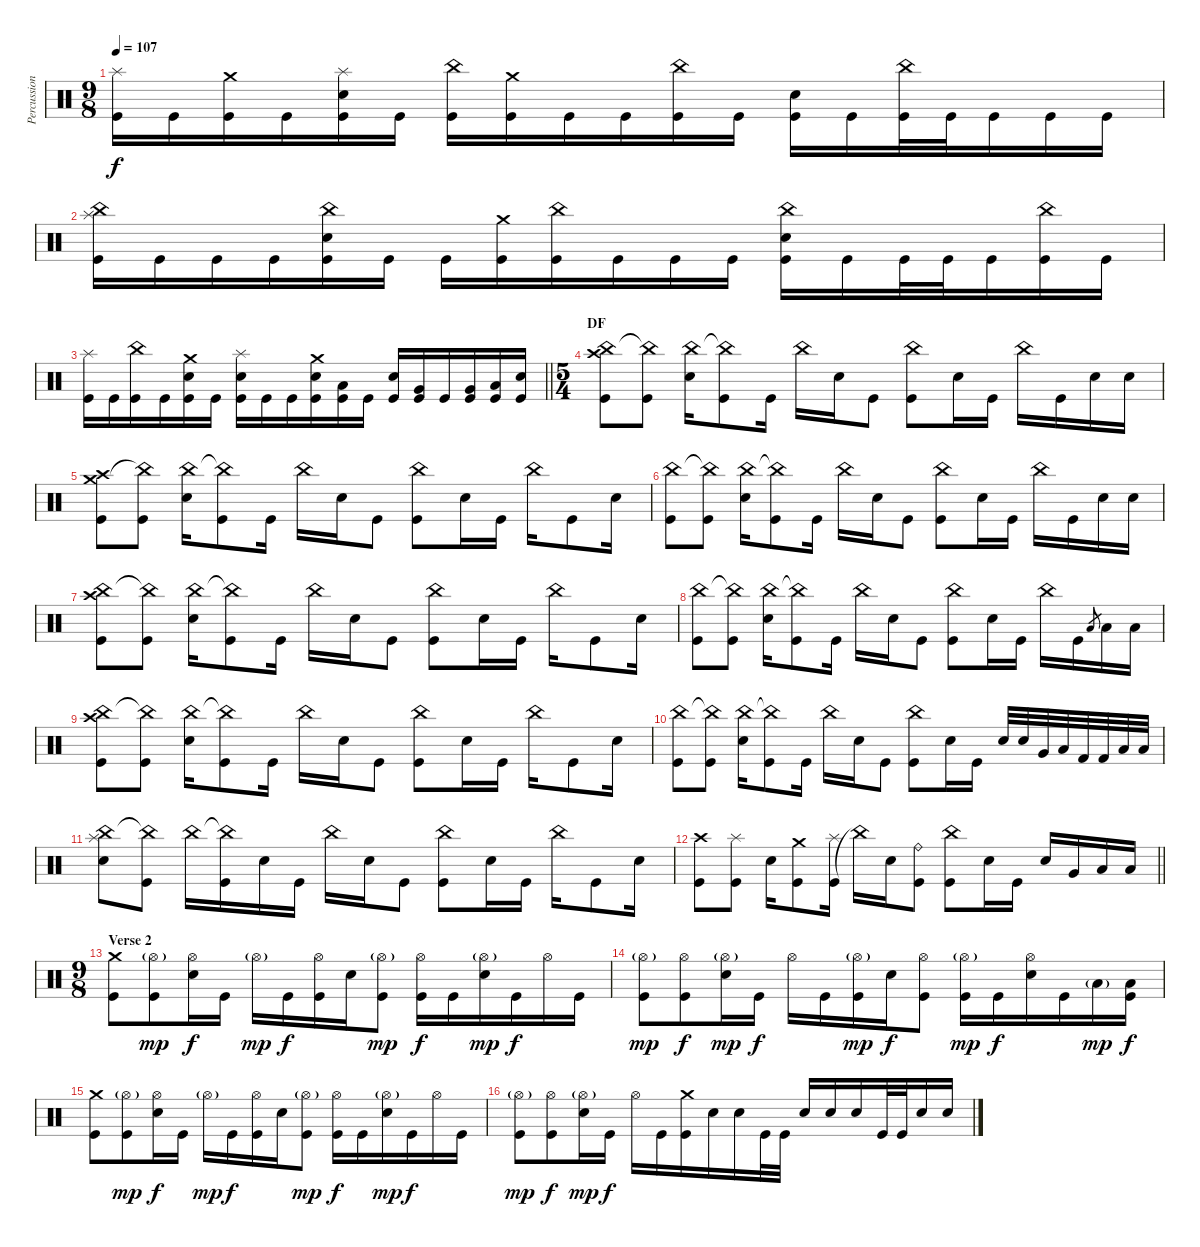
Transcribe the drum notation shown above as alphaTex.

\track ("Percussion" "Percussion") {instrument percussion}
\staff {score}
\articulation defaults
\ts (9 8)
\tempo 107
\clef neutral
\ks c
("Splash (hit)" "Kick (hit)").16{dy f} "Kick (hit)".16 ("Crash medium (hit)" "Kick (hit)").16 "Kick (hit)".16 ("Splash (hit)" "Electric Snare (hit)" "Kick (hit)").16 "Kick (hit)".16 ("China (hit)" "Kick (hit)").16 ("Crash medium (hit)" "Kick (hit)").16 "Kick (hit)".16 "Kick (hit)".16 ("China (hit)" "Kick (hit)").16 "Kick (hit)".16 ("Electric Snare (hit)" "Kick (hit)").16 "Kick (hit)".16 ("China (hit)" "Kick (hit)").32 "Kick (hit)".32 "Kick (hit)".16 "Kick (hit)".16 "Kick (hit)".16 |
("China (hit)" "Splash (hit)" "Kick (hit)").16 "Kick (hit)".16 "Kick (hit)".16 "Kick (hit)".16 ("China (hit)" "Electric Snare (hit)" "Kick (hit)").16 "Kick (hit)".16 "Kick (hit)".16 ("Crash medium (hit)" "Kick (hit)").16 ("China (hit)" "Kick (hit)").16 "Kick (hit)".16 "Kick (hit)".16 "Kick (hit)".16 ("China (hit)" "Electric Snare (hit)" "Kick (hit)").16 "Kick (hit)".16 "Kick (hit)".32 "Kick (hit)".32 "Kick (hit)".16 ("China (hit)" "Kick (hit)").16 "Kick (hit)".16 |
\barLineRight lightlight
("Splash (hit)" "Kick (hit)").16 "Kick (hit)".16 ("China (hit)" "Kick (hit)").16 "Kick (hit)".16 ("Crash medium (hit)" "Electric Snare (hit)" "Kick (hit)").16 "Kick (hit)".16 ("Splash (hit)" "Electric Snare (hit)" "Kick (hit)").16 "Kick (hit)".16 "Kick (hit)".16 ("Crash medium (hit)" "Electric Snare (hit)" "Kick (hit)").16 ("Low Tom (hit)" "Kick (hit)").16 "Kick (hit)".16 ("Electric Snare (hit)" "Kick (hit)").16 ("Very Low Tom (hit)" "Kick (hit)").16 "Kick (hit)".16 ("Very Low Tom (hit)" "Kick (hit)").16 ("Low Floor Tom (hit)" "Kick (hit)").16 ("Electric Snare (hit)" "Kick (hit)").16 |
\ts (5 4)
\section ("" "DF")
("China (hit)" "Crash high (hit)" "Kick (hit)").8{volume 3} ("China (hit)"{t} "Kick (hit)").8 ("China (hit)" "Electric Snare (hit)").16{volume 6} ("China (hit)"{t} "Kick (hit)").8 "Kick (hit)".16{volume 8} "China (hit)".16 "Electric Snare (hit)".16 "Kick (hit)".8{volume 10} ("China (hit)" "Kick (hit)").8 "Electric Snare (hit)".16{volume 12} "Kick (hit)".16 "China (hit)".16 "Kick (hit)".16 "Electric Snare (hit)".16{volume 13} "Electric Snare (hit)".16 |
("Crash medium (hit)" "Crash high (hit)" "Kick (hit)").8 ("China (hit)"{t} "Kick (hit)").8 ("China (hit)" "Electric Snare (hit)").16 ("China (hit)"{t} "Kick (hit)").8 "Kick (hit)".16 "China (hit)".16 "Electric Snare (hit)".16 "Kick (hit)".8 ("China (hit)" "Kick (hit)").8 "Electric Snare (hit)".16 "Kick (hit)".16 "China (hit)".16 "Kick (hit)".8 "Electric Snare (hit)".16 |
("China (hit)" "Kick (hit)").8 ("China (hit)"{t} "Kick (hit)").8 ("China (hit)" "Electric Snare (hit)").16 ("China (hit)"{t} "Kick (hit)").8 "Kick (hit)".16 "China (hit)".16 "Electric Snare (hit)".16 "Kick (hit)".8 ("China (hit)" "Kick (hit)").8 "Electric Snare (hit)".16 "Kick (hit)".16 "China (hit)".16 "Kick (hit)".16 "Electric Snare (hit)".16 "Electric Snare (hit)".16 |
("China (hit)" "Crash high (hit)" "Kick (hit)").8 ("China (hit)"{t} "Kick (hit)").8 ("China (hit)" "Electric Snare (hit)").16 ("China (hit)"{t} "Kick (hit)").8 "Kick (hit)".16 "China (hit)".16 "Electric Snare (hit)".16 "Kick (hit)".8 ("China (hit)" "Kick (hit)").8 "Electric Snare (hit)".16 "Kick (hit)".16 "China (hit)".16 "Kick (hit)".8 "Electric Snare (hit)".16 |
("China (hit)" "Kick (hit)").8 ("China (hit)"{t} "Kick (hit)").8 ("China (hit)" "Electric Snare (hit)").16 ("China (hit)"{t} "Kick (hit)").8 "Kick (hit)".16 "China (hit)".16 "Electric Snare (hit)".16 "Kick (hit)".8 ("China (hit)" "Kick (hit)").8 "Electric Snare (hit)".16 "Kick (hit)".16 "China (hit)".16 "Kick (hit)".16 "Low Floor Tom (hit)".8{gr} "Low Floor Tom (hit)".16 "Low Floor Tom (hit)".16 |
("China (hit)" "Crash high (hit)" "Kick (hit)").8 ("China (hit)"{t} "Kick (hit)").8 ("China (hit)" "Electric Snare (hit)").16 ("China (hit)"{t} "Kick (hit)").8 "Kick (hit)".16 "China (hit)".16 "Electric Snare (hit)".16 "Kick (hit)".8 ("China (hit)" "Kick (hit)").8 "Electric Snare (hit)".16 "Kick (hit)".16 "China (hit)".16 "Kick (hit)".8 "Electric Snare (hit)".16 |
("China (hit)" "Kick (hit)").8 ("China (hit)"{t} "Kick (hit)").8 ("China (hit)" "Electric Snare (hit)").16 ("China (hit)"{t} "Kick (hit)").8 "Kick (hit)".16 "China (hit)".16 "Electric Snare (hit)".16 "Kick (hit)".8 ("China (hit)" "Kick (hit)").8 "Electric Snare (hit)".16 "Kick (hit)".16 "Electric Snare (hit)".32 "Electric Snare (hit)".32 "Very Low Tom (hit)".32 "Low Floor Tom (hit)".32 "Kick (hit) 2".32 "Kick (hit) 2".32 "Low Floor Tom (hit)".32 "Low Floor Tom (hit)".32 |
("China (hit)" "Splash (hit)" "Electric Snare (hit)").8 ("China (hit)"{t} "Kick (hit)").8 "China (hit)".16 ("China (hit)"{t} "Kick (hit)").16 "Electric Snare (hit)".16 "Kick (hit)".16 "China (hit)".16 "Electric Snare (hit)".16 "Kick (hit)".8 ("China (hit)" "Kick (hit)").8 "Electric Snare (hit)".16 "Kick (hit)".16 "China (hit)".16 "Kick (hit)".8 "Electric Snare (hit)".16 |
\barLineRight lightlight
("Crash high (hit)" "Kick (hit)").8 ("Splash (hit)" "Kick (hit)").8 "Electric Snare (hit)".16 ("Crash medium (hit)" "Kick (hit)").8 ("Kick (hit)" "Splash (hit)").16 "China (hit)"{t}.16 "Electric Snare (hit)".16 ("Kick (hit)" "Ride (bell)").8 ("China (hit)" "Kick (hit)").8 "Electric Snare (hit)".16 "Kick (hit)".16 "Electric Snare (hit)".16 "Very Low Tom (hit)".16 "Low Floor Tom (hit)".16 "Low Floor Tom (hit)".16 |
\ts (9 8)
\section ("" "Verse 2")
("Crash medium (hit)" "Kick (hit)").8 ("Hi-Hat (open)"{g} "Kick (hit)").8{dy mp} ("Hi-Hat (open)" "Electric Snare (hit)").16{dy f} "Kick (hit)".16 "Hi-Hat (open)"{g}.16{dy mp} "Kick (hit)".16{dy f} ("Hi-Hat (open)" "Kick (hit)").16 "Electric Snare (hit)".16 ("Hi-Hat (open)"{g} "Kick (hit)").8{dy mp} ("Hi-Hat (open)" "Kick (hit)").16{dy f} "Kick (hit)".16 ("Hi-Hat (open)"{g} "Electric Snare (hit)").16{dy mp} "Kick (hit)".16{dy f} "Hi-Hat (open)".16 "Kick (hit)".16 |
("Hi-Hat (open)"{g} "Kick (hit)").8{dy mp} ("Hi-Hat (open)" "Kick (hit)").8{dy f} ("Hi-Hat (open)"{g} "Electric Snare (hit)").16{dy mp} "Kick (hit)".16{dy f} "Hi-Hat (open)".16 "Kick (hit)".16 ("Hi-Hat (open)"{g} "Kick (hit)").16{dy mp} "Electric Snare (hit)".16{dy f} ("Hi-Hat (open)" "Kick (hit)").8 ("Hi-Hat (open)"{g} "Kick (hit)").16{dy mp} "Kick (hit)".16{dy f} ("Hi-Hat (open)" "Electric Snare (hit)").16 "Kick (hit)".16 "Low Tom (hit)"{g}.16{dy mp} ("Low Floor Tom (hit)" "Kick (hit)").16{dy f} |
("Crash medium (hit)" "Kick (hit)").8 ("Hi-Hat (open)"{g} "Kick (hit)").8{dy mp} ("Hi-Hat (open)" "Electric Snare (hit)").16{dy f} "Kick (hit)".16 "Hi-Hat (open)"{g}.16{dy mp} "Kick (hit)".16{dy f} ("Hi-Hat (open)" "Kick (hit)").16 "Electric Snare (hit)".16 ("Hi-Hat (open)"{g} "Kick (hit)").8{dy mp} ("Hi-Hat (open)" "Kick (hit)").16{dy f} "Kick (hit)".16 ("Hi-Hat (open)"{g} "Electric Snare (hit)").16{dy mp} "Kick (hit)".16{dy f} "Hi-Hat (open)".16 "Kick (hit)".16 |
("Hi-Hat (open)"{g} "Kick (hit)").8{dy mp} ("Hi-Hat (open)" "Kick (hit)").8{dy f} ("Hi-Hat (open)"{g} "Electric Snare (hit)").16{dy mp} "Kick (hit)".16{dy f} "Hi-Hat (open)".16 "Kick (hit)".16 ("Crash medium (hit)" "Kick (hit)").16 "Electric Snare (hit)".16 "Electric Snare (hit)".16 "Kick (hit)".32 "Kick (hit)".32 "Electric Snare (hit)".16 "Electric Snare (hit)".16 "Electric Snare (hit)".16 "Kick (hit)".32 "Kick (hit)".32 "Electric Snare (hit)".16 "Electric Snare (hit)".16
